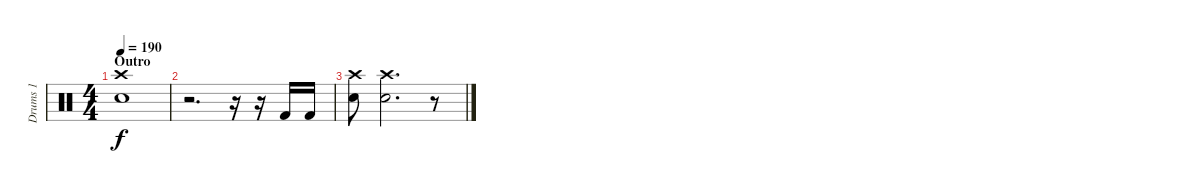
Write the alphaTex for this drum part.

\track ("Drums 1" "Drums 1") {instrument percussion}
\staff {score}
\articulation defaults
\ts (4 4)
\section ("" "Outro")
\tempo 190
\clef neutral
\ks c
("Crash high (hit)" "Snare (hit) 2").1{dy f} |
r.2{d} r.16 r.16 "Kick (hit) 2".16 "Kick (hit) 2".16 |
("Crash high (hit)" "Snare (hit) 2").8 ("Crash high (hit)" "Snare (hit) 2").2{d} r.8
